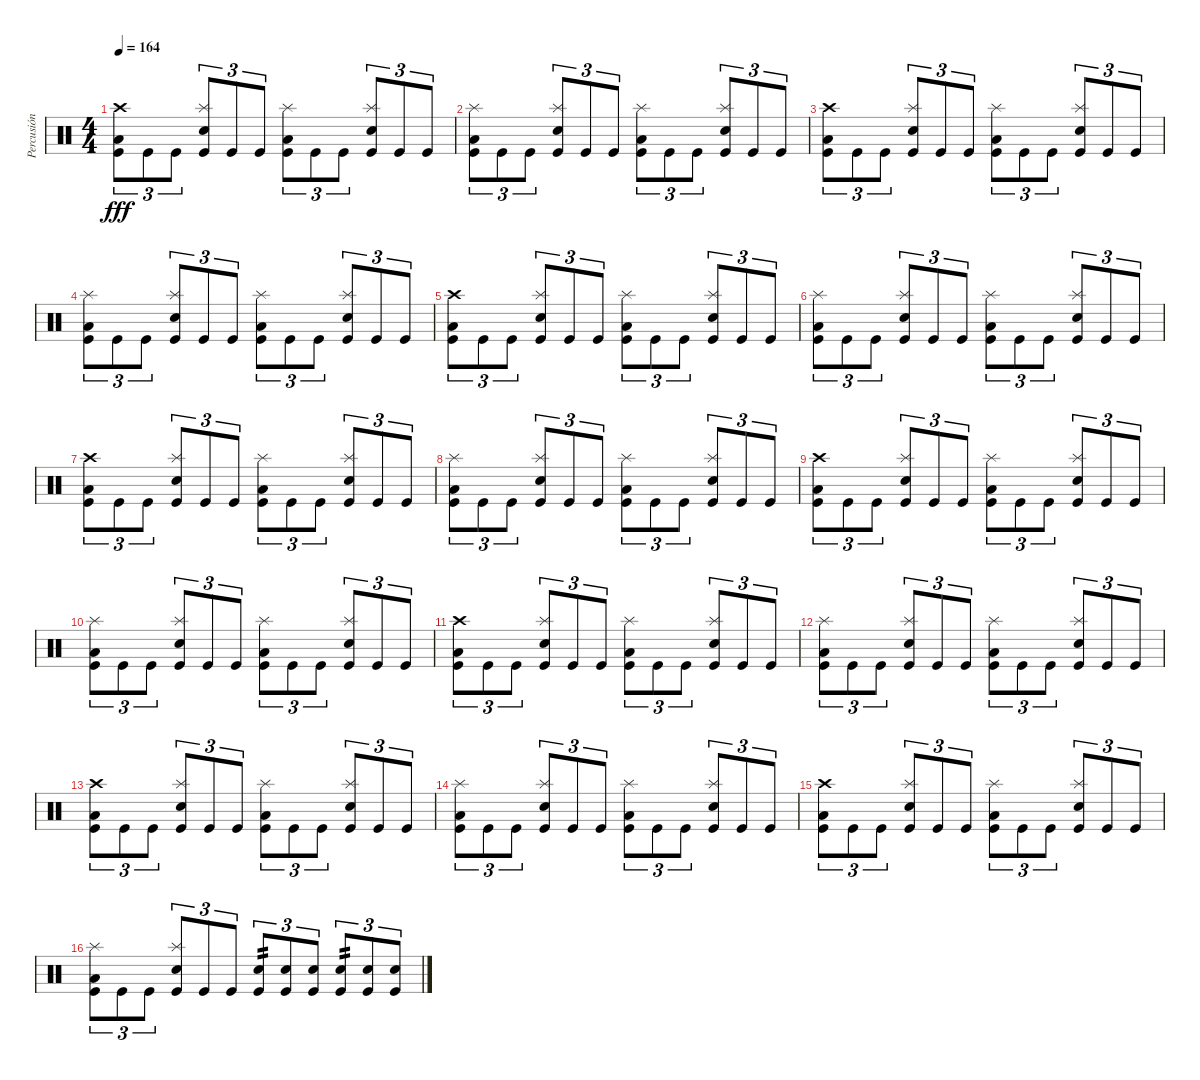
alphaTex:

\track ("Percusión" "Percusión") {instrument percussion}
\staff {score}
\articulation defaults
\ts (4 4)
\tempo 164
\clef neutral
\ks c
("Crash high (hit)" "Low Floor Tom (hit)" "Kick (hit)").8{tu (3 2) dy fff} "Kick (hit)".8{tu (3 2)} "Kick (hit)".8{tu (3 2)} ("Splash (hit)" "Snare (hit) 2" "Kick (hit)").8{tu (3 2)} "Kick (hit)".8{tu (3 2)} "Kick (hit)".8{tu (3 2)} ("Splash (hit)" "Low Floor Tom (hit)" "Kick (hit)").8{tu (3 2)} "Kick (hit)".8{tu (3 2)} "Kick (hit)".8{tu (3 2)} ("Splash (hit)" "Snare (hit) 2" "Kick (hit)").8{tu (3 2)} "Kick (hit)".8{tu (3 2)} "Kick (hit)".8{tu (3 2)} |
("Splash (hit)" "Low Floor Tom (hit)" "Kick (hit)").8{tu (3 2)} "Kick (hit)".8{tu (3 2)} "Kick (hit)".8{tu (3 2)} ("Splash (hit)" "Snare (hit) 2" "Kick (hit)").8{tu (3 2)} "Kick (hit)".8{tu (3 2)} "Kick (hit)".8{tu (3 2)} ("Splash (hit)" "Low Floor Tom (hit)" "Kick (hit)").8{tu (3 2)} "Kick (hit)".8{tu (3 2)} "Kick (hit)".8{tu (3 2)} ("Splash (hit)" "Snare (hit) 2" "Kick (hit)").8{tu (3 2)} "Kick (hit)".8{tu (3 2)} "Kick (hit)".8{tu (3 2)} |
("Crash high (hit)" "Low Floor Tom (hit)" "Kick (hit)").8{tu (3 2)} "Kick (hit)".8{tu (3 2)} "Kick (hit)".8{tu (3 2)} ("Splash (hit)" "Snare (hit) 2" "Kick (hit)").8{tu (3 2)} "Kick (hit)".8{tu (3 2)} "Kick (hit)".8{tu (3 2)} ("Splash (hit)" "Low Floor Tom (hit)" "Kick (hit)").8{tu (3 2)} "Kick (hit)".8{tu (3 2)} "Kick (hit)".8{tu (3 2)} ("Splash (hit)" "Snare (hit) 2" "Kick (hit)").8{tu (3 2)} "Kick (hit)".8{tu (3 2)} "Kick (hit)".8{tu (3 2)} |
("Splash (hit)" "Low Floor Tom (hit)" "Kick (hit)").8{tu (3 2)} "Kick (hit)".8{tu (3 2)} "Kick (hit)".8{tu (3 2)} ("Splash (hit)" "Snare (hit) 2" "Kick (hit)").8{tu (3 2)} "Kick (hit)".8{tu (3 2)} "Kick (hit)".8{tu (3 2)} ("Splash (hit)" "Low Floor Tom (hit)" "Kick (hit)").8{tu (3 2)} "Kick (hit)".8{tu (3 2)} "Kick (hit)".8{tu (3 2)} ("Splash (hit)" "Snare (hit) 2" "Kick (hit)").8{tu (3 2)} "Kick (hit)".8{tu (3 2)} "Kick (hit)".8{tu (3 2)} |
("Crash high (hit)" "Low Floor Tom (hit)" "Kick (hit)").8{tu (3 2)} "Kick (hit)".8{tu (3 2)} "Kick (hit)".8{tu (3 2)} ("Splash (hit)" "Snare (hit) 2" "Kick (hit)").8{tu (3 2)} "Kick (hit)".8{tu (3 2)} "Kick (hit)".8{tu (3 2)} ("Splash (hit)" "Low Floor Tom (hit)" "Kick (hit)").8{tu (3 2)} "Kick (hit)".8{tu (3 2)} "Kick (hit)".8{tu (3 2)} ("Splash (hit)" "Snare (hit) 2" "Kick (hit)").8{tu (3 2)} "Kick (hit)".8{tu (3 2)} "Kick (hit)".8{tu (3 2)} |
("Splash (hit)" "Low Floor Tom (hit)" "Kick (hit)").8{tu (3 2)} "Kick (hit)".8{tu (3 2)} "Kick (hit)".8{tu (3 2)} ("Splash (hit)" "Snare (hit) 2" "Kick (hit)").8{tu (3 2)} "Kick (hit)".8{tu (3 2)} "Kick (hit)".8{tu (3 2)} ("Splash (hit)" "Low Floor Tom (hit)" "Kick (hit)").8{tu (3 2)} "Kick (hit)".8{tu (3 2)} "Kick (hit)".8{tu (3 2)} ("Splash (hit)" "Snare (hit) 2" "Kick (hit)").8{tu (3 2)} "Kick (hit)".8{tu (3 2)} "Kick (hit)".8{tu (3 2)} |
("Crash high (hit)" "Low Floor Tom (hit)" "Kick (hit)").8{tu (3 2)} "Kick (hit)".8{tu (3 2)} "Kick (hit)".8{tu (3 2)} ("Splash (hit)" "Snare (hit) 2" "Kick (hit)").8{tu (3 2)} "Kick (hit)".8{tu (3 2)} "Kick (hit)".8{tu (3 2)} ("Splash (hit)" "Low Floor Tom (hit)" "Kick (hit)").8{tu (3 2)} "Kick (hit)".8{tu (3 2)} "Kick (hit)".8{tu (3 2)} ("Splash (hit)" "Snare (hit) 2" "Kick (hit)").8{tu (3 2)} "Kick (hit)".8{tu (3 2)} "Kick (hit)".8{tu (3 2)} |
("Splash (hit)" "Low Floor Tom (hit)" "Kick (hit)").8{tu (3 2)} "Kick (hit)".8{tu (3 2)} "Kick (hit)".8{tu (3 2)} ("Splash (hit)" "Snare (hit) 2" "Kick (hit)").8{tu (3 2)} "Kick (hit)".8{tu (3 2)} "Kick (hit)".8{tu (3 2)} ("Splash (hit)" "Low Floor Tom (hit)" "Kick (hit)").8{tu (3 2)} "Kick (hit)".8{tu (3 2)} "Kick (hit)".8{tu (3 2)} ("Splash (hit)" "Snare (hit) 2" "Kick (hit)").8{tu (3 2)} "Kick (hit)".8{tu (3 2)} "Kick (hit)".8{tu (3 2)} |
("Crash high (hit)" "Low Floor Tom (hit)" "Kick (hit)").8{tu (3 2)} "Kick (hit)".8{tu (3 2)} "Kick (hit)".8{tu (3 2)} ("Splash (hit)" "Snare (hit) 2" "Kick (hit)").8{tu (3 2)} "Kick (hit)".8{tu (3 2)} "Kick (hit)".8{tu (3 2)} ("Splash (hit)" "Low Floor Tom (hit)" "Kick (hit)").8{tu (3 2)} "Kick (hit)".8{tu (3 2)} "Kick (hit)".8{tu (3 2)} ("Splash (hit)" "Snare (hit) 2" "Kick (hit)").8{tu (3 2)} "Kick (hit)".8{tu (3 2)} "Kick (hit)".8{tu (3 2)} |
("Splash (hit)" "Low Floor Tom (hit)" "Kick (hit)").8{tu (3 2)} "Kick (hit)".8{tu (3 2)} "Kick (hit)".8{tu (3 2)} ("Splash (hit)" "Snare (hit) 2" "Kick (hit)").8{tu (3 2)} "Kick (hit)".8{tu (3 2)} "Kick (hit)".8{tu (3 2)} ("Splash (hit)" "Low Floor Tom (hit)" "Kick (hit)").8{tu (3 2)} "Kick (hit)".8{tu (3 2)} "Kick (hit)".8{tu (3 2)} ("Splash (hit)" "Snare (hit) 2" "Kick (hit)").8{tu (3 2)} "Kick (hit)".8{tu (3 2)} "Kick (hit)".8{tu (3 2)} |
("Crash high (hit)" "Low Floor Tom (hit)" "Kick (hit)").8{tu (3 2)} "Kick (hit)".8{tu (3 2)} "Kick (hit)".8{tu (3 2)} ("Splash (hit)" "Snare (hit) 2" "Kick (hit)").8{tu (3 2)} "Kick (hit)".8{tu (3 2)} "Kick (hit)".8{tu (3 2)} ("Splash (hit)" "Low Floor Tom (hit)" "Kick (hit)").8{tu (3 2)} "Kick (hit)".8{tu (3 2)} "Kick (hit)".8{tu (3 2)} ("Splash (hit)" "Snare (hit) 2" "Kick (hit)").8{tu (3 2)} "Kick (hit)".8{tu (3 2)} "Kick (hit)".8{tu (3 2)} |
("Splash (hit)" "Low Floor Tom (hit)" "Kick (hit)").8{tu (3 2)} "Kick (hit)".8{tu (3 2)} "Kick (hit)".8{tu (3 2)} ("Splash (hit)" "Snare (hit) 2" "Kick (hit)").8{tu (3 2)} "Kick (hit)".8{tu (3 2)} "Kick (hit)".8{tu (3 2)} ("Splash (hit)" "Low Floor Tom (hit)" "Kick (hit)").8{tu (3 2)} "Kick (hit)".8{tu (3 2)} "Kick (hit)".8{tu (3 2)} ("Splash (hit)" "Snare (hit) 2" "Kick (hit)").8{tu (3 2)} "Kick (hit)".8{tu (3 2)} "Kick (hit)".8{tu (3 2)} |
("Crash high (hit)" "Low Floor Tom (hit)" "Kick (hit)").8{tu (3 2)} "Kick (hit)".8{tu (3 2)} "Kick (hit)".8{tu (3 2)} ("Splash (hit)" "Snare (hit) 2" "Kick (hit)").8{tu (3 2)} "Kick (hit)".8{tu (3 2)} "Kick (hit)".8{tu (3 2)} ("Splash (hit)" "Low Floor Tom (hit)" "Kick (hit)").8{tu (3 2)} "Kick (hit)".8{tu (3 2)} "Kick (hit)".8{tu (3 2)} ("Splash (hit)" "Snare (hit) 2" "Kick (hit)").8{tu (3 2)} "Kick (hit)".8{tu (3 2)} "Kick (hit)".8{tu (3 2)} |
("Splash (hit)" "Low Floor Tom (hit)" "Kick (hit)").8{tu (3 2)} "Kick (hit)".8{tu (3 2)} "Kick (hit)".8{tu (3 2)} ("Splash (hit)" "Snare (hit) 2" "Kick (hit)").8{tu (3 2)} "Kick (hit)".8{tu (3 2)} "Kick (hit)".8{tu (3 2)} ("Splash (hit)" "Low Floor Tom (hit)" "Kick (hit)").8{tu (3 2)} "Kick (hit)".8{tu (3 2)} "Kick (hit)".8{tu (3 2)} ("Splash (hit)" "Snare (hit) 2" "Kick (hit)").8{tu (3 2)} "Kick (hit)".8{tu (3 2)} "Kick (hit)".8{tu (3 2)} |
("Crash high (hit)" "Low Floor Tom (hit)" "Kick (hit)").8{tu (3 2)} "Kick (hit)".8{tu (3 2)} "Kick (hit)".8{tu (3 2)} ("Splash (hit)" "Snare (hit) 2" "Kick (hit)").8{tu (3 2)} "Kick (hit)".8{tu (3 2)} "Kick (hit)".8{tu (3 2)} ("Splash (hit)" "Low Floor Tom (hit)" "Kick (hit)").8{tu (3 2)} "Kick (hit)".8{tu (3 2)} "Kick (hit)".8{tu (3 2)} ("Splash (hit)" "Snare (hit) 2" "Kick (hit)").8{tu (3 2)} "Kick (hit)".8{tu (3 2)} "Kick (hit)".8{tu (3 2)} |
("Splash (hit)" "Low Floor Tom (hit)" "Kick (hit)").8{tu (3 2)} "Kick (hit)".8{tu (3 2)} "Kick (hit)".8{tu (3 2)} ("Splash (hit)" "Snare (hit) 2" "Kick (hit)").8{tu (3 2)} "Kick (hit)".8{tu (3 2)} "Kick (hit)".8{tu (3 2)} ("Snare (hit) 2" "Kick (hit)").8{tu (3 2) tp 2} ("Snare (hit) 2" "Kick (hit)").8{tu (3 2)} ("Snare (hit) 2" "Kick (hit)").8{tu (3 2)} ("Snare (hit) 2" "Kick (hit)").8{tu (3 2) tp 2} ("Snare (hit) 2" "Kick (hit)").8{tu (3 2)} ("Snare (hit) 2" "Kick (hit)").8{tu (3 2)}
